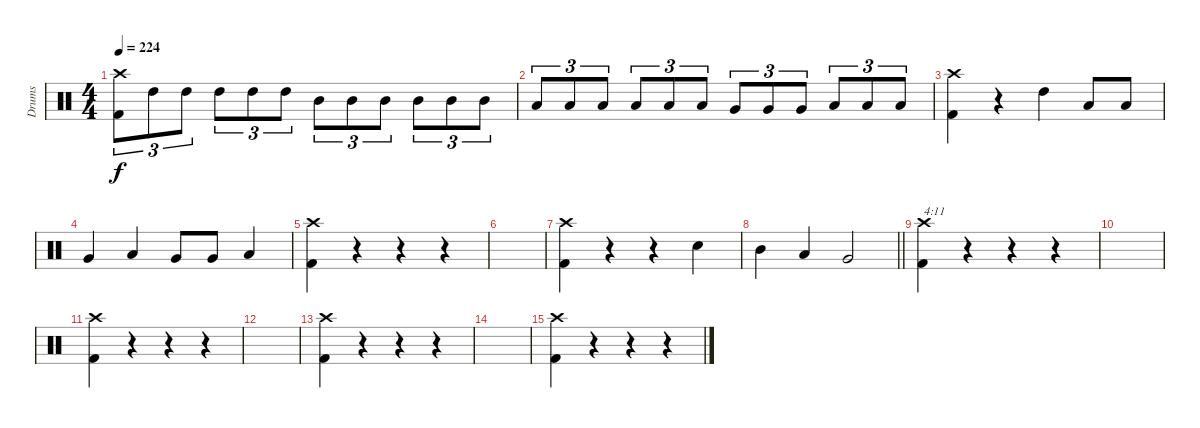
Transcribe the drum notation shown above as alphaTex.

\track ("Drums" "Drums") {instrument percussion}
\staff {score}
\articulation defaults
\ts (4 4)
\tempo 224
\clef neutral
\ks c
("Crash high (hit)" "Kick (hit) 2").8{tu (3 2) dy f} "High Tom (hit)".8{tu (3 2)} "High Tom (hit)".8{tu (3 2)} "High Tom (hit)".8{tu (3 2)} "High Tom (hit)".8{tu (3 2)} "High Tom (hit)".8{tu (3 2)} "Mid Tom (hit)".8{tu (3 2)} "Mid Tom (hit)".8{tu (3 2)} "Mid Tom (hit)".8{tu (3 2)} "Mid Tom (hit)".8{tu (3 2)} "Mid Tom (hit)".8{tu (3 2)} "Mid Tom (hit)".8{tu (3 2)} |
"Low Tom (hit)".8{tu (3 2)} "Low Tom (hit)".8{tu (3 2)} "Low Tom (hit)".8{tu (3 2)} "Low Tom (hit)".8{tu (3 2)} "Low Tom (hit)".8{tu (3 2)} "Low Tom (hit)".8{tu (3 2)} "Very Low Tom (hit)".8{tu (3 2)} "Very Low Tom (hit)".8{tu (3 2)} "Very Low Tom (hit)".8{tu (3 2)} "Low Floor Tom (hit)".8{tu (3 2)} "Low Floor Tom (hit)".8{tu (3 2)} "Low Floor Tom (hit)".8{tu (3 2)} |
("Crash high (hit)" "Kick (hit) 2").4 r.4 "High Tom (hit)".4 "Low Tom (hit)".8 "Low Tom (hit)".8 |
"Very Low Tom (hit)".4 "Low Tom (hit)".4 "Very Low Tom (hit)".8 "Very Low Tom (hit)".8 "Low Floor Tom (hit)".4 |
("Crash high (hit)" "Kick (hit) 2").4 r.4 r.4 r.4 |
|
("Crash high (hit)" "Kick (hit) 2").4 r.4 r.4 "Electric Snare (hit)".4 |
\barLineRight lightlight "Mid Tom (hit)".4 "Low Tom (hit)".4 "Very Low Tom (hit)".2
|
\section ("" "")
("Crash high (hit)" "Kick (hit) 2").4{txt "4:11"} r.4 r.4 r.4 |
|
("Crash high (hit)" "Kick (hit) 2").4 r.4 r.4 r.4 |
|
("Crash high (hit)" "Kick (hit) 2").4 r.4 r.4 r.4 |
|
("Crash high (hit)" "Kick (hit) 2").4 r.4 r.4 r.4
